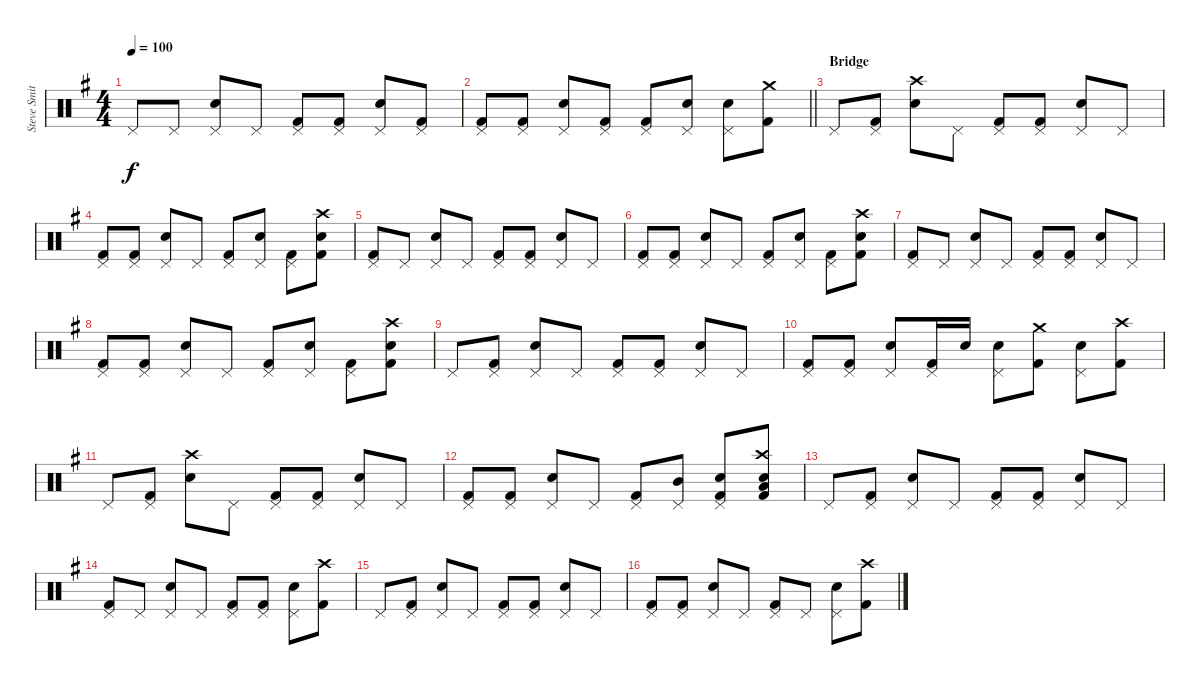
\track ("Steve Smith" "Steve Smit") {instrument percussion}
\staff {score}
\articulation defaults
\ts (4 4)
\tempo 100
\clef neutral
\ks g "Pedal Hi-Hat (hit)".8{dy f} "Pedal Hi-Hat (hit)".8
("Pedal Hi-Hat (hit)" "Snare (hit) 2").8 "Pedal Hi-Hat (hit)".8 ("Pedal Hi-Hat (hit)" "Kick (hit) 2").8 ("Pedal Hi-Hat (hit)" "Kick (hit) 2").8 ("Pedal Hi-Hat (hit)" "Snare (hit) 2").8 ("Pedal Hi-Hat (hit)" "Kick (hit) 2").8 |
\barLineRight lightlight
("Pedal Hi-Hat (hit)" "Kick (hit) 2").8 ("Pedal Hi-Hat (hit)" "Kick (hit) 2").8 ("Pedal Hi-Hat (hit)" "Snare (hit) 2").8 ("Pedal Hi-Hat (hit)" "Kick (hit) 2").8 ("Pedal Hi-Hat (hit)" "Kick (hit) 2").8 ("Pedal Hi-Hat (hit)" "Snare (hit) 2").8 ("Pedal Hi-Hat (hit)" "Snare (hit) 2").8 ("Crash medium (hit)" "Kick (hit) 2").8 |
\section ("" "Bridge")
"Pedal Hi-Hat (hit)".8 ("Pedal Hi-Hat (hit)" "Kick (hit) 2").8 ("Crash high (hit)" "Snare (hit) 2").8 "Pedal Hi-Hat (hit)".8 ("Pedal Hi-Hat (hit)" "Kick (hit) 2").8 ("Pedal Hi-Hat (hit)" "Kick (hit) 2").8 ("Pedal Hi-Hat (hit)" "Snare (hit) 2").8 "Pedal Hi-Hat (hit)".8 |
("Pedal Hi-Hat (hit)" "Kick (hit) 2").8 ("Pedal Hi-Hat (hit)" "Kick (hit) 2").8 ("Pedal Hi-Hat (hit)" "Snare (hit) 2").8 "Pedal Hi-Hat (hit)".8 ("Pedal Hi-Hat (hit)" "Kick (hit) 2").8 ("Pedal Hi-Hat (hit)" "Snare (hit) 2").8 ("Pedal Hi-Hat (hit)" "Kick (hit) 2").8 ("Crash high (hit)" "Snare (hit) 2" "Kick (hit) 2").8 |
("Pedal Hi-Hat (hit)" "Kick (hit) 2").8 "Pedal Hi-Hat (hit)".8 ("Pedal Hi-Hat (hit)" "Snare (hit) 2").8 "Pedal Hi-Hat (hit)".8 ("Pedal Hi-Hat (hit)" "Kick (hit) 2").8 ("Pedal Hi-Hat (hit)" "Kick (hit) 2").8 ("Pedal Hi-Hat (hit)" "Snare (hit) 2").8 "Pedal Hi-Hat (hit)".8 |
("Pedal Hi-Hat (hit)" "Kick (hit) 2").8 ("Pedal Hi-Hat (hit)" "Kick (hit) 2").8 ("Pedal Hi-Hat (hit)" "Snare (hit) 2").8 "Pedal Hi-Hat (hit)".8 ("Pedal Hi-Hat (hit)" "Kick (hit) 2").8 ("Pedal Hi-Hat (hit)" "Snare (hit) 2").8 ("Pedal Hi-Hat (hit)" "Kick (hit) 2").8 ("Crash high (hit)" "Snare (hit) 2" "Kick (hit) 2").8 |
("Pedal Hi-Hat (hit)" "Kick (hit) 2").8 "Pedal Hi-Hat (hit)".8 ("Pedal Hi-Hat (hit)" "Snare (hit) 2").8 "Pedal Hi-Hat (hit)".8 ("Pedal Hi-Hat (hit)" "Kick (hit) 2").8 ("Pedal Hi-Hat (hit)" "Kick (hit) 2").8 ("Pedal Hi-Hat (hit)" "Snare (hit) 2").8 "Pedal Hi-Hat (hit)".8 |
("Pedal Hi-Hat (hit)" "Kick (hit) 2").8 ("Pedal Hi-Hat (hit)" "Kick (hit) 2").8 ("Pedal Hi-Hat (hit)" "Snare (hit) 2").8 "Pedal Hi-Hat (hit)".8 ("Pedal Hi-Hat (hit)" "Kick (hit) 2").8 ("Pedal Hi-Hat (hit)" "Snare (hit) 2").8 ("Pedal Hi-Hat (hit)" "Kick (hit) 2").8 ("Crash high (hit)" "Snare (hit) 2" "Kick (hit) 2").8 |
"Pedal Hi-Hat (hit)".8 ("Pedal Hi-Hat (hit)" "Kick (hit) 2").8 ("Pedal Hi-Hat (hit)" "Snare (hit) 2").8 "Pedal Hi-Hat (hit)".8 ("Pedal Hi-Hat (hit)" "Kick (hit) 2").8 ("Pedal Hi-Hat (hit)" "Kick (hit) 2").8 ("Pedal Hi-Hat (hit)" "Snare (hit) 2").8 "Pedal Hi-Hat (hit)".8 |
("Pedal Hi-Hat (hit)" "Kick (hit) 2").8 ("Pedal Hi-Hat (hit)" "Kick (hit) 2").8 ("Pedal Hi-Hat (hit)" "Snare (hit) 2").8 ("Pedal Hi-Hat (hit)" "Kick (hit) 2").16 "Snare (hit) 2".16 ("Pedal Hi-Hat (hit)" "Snare (hit) 2").8 ("Crash medium (hit)" "Kick (hit) 2").8 ("Pedal Hi-Hat (hit)" "Snare (hit) 2").8 ("Crash high (hit)" "Kick (hit) 2").8 |
"Pedal Hi-Hat (hit)".8 ("Pedal Hi-Hat (hit)" "Kick (hit) 2").8 ("Crash high (hit)" "Snare (hit) 2").8 "Pedal Hi-Hat (hit)".8 ("Pedal Hi-Hat (hit)" "Kick (hit) 2").8 ("Pedal Hi-Hat (hit)" "Kick (hit) 2").8 ("Pedal Hi-Hat (hit)" "Snare (hit) 2").8 "Pedal Hi-Hat (hit)".8 |
("Pedal Hi-Hat (hit)" "Kick (hit) 2").8 ("Pedal Hi-Hat (hit)" "Kick (hit) 2").8 ("Pedal Hi-Hat (hit)" "Snare (hit) 2").8 "Pedal Hi-Hat (hit)".8 ("Pedal Hi-Hat (hit)" "Kick (hit) 2").8 ("Pedal Hi-Hat (hit)" "Mid Tom (hit)").8 ("Pedal Hi-Hat (hit)" "Snare (hit) 2" "Kick (hit) 2").8 ("Crash high (hit)" "Snare (hit) 2" "Low Tom (hit)" "Kick (hit) 2").8 |
"Pedal Hi-Hat (hit)".8 ("Pedal Hi-Hat (hit)" "Kick (hit) 2").8 ("Pedal Hi-Hat (hit)" "Snare (hit) 2").8 "Pedal Hi-Hat (hit)".8 ("Pedal Hi-Hat (hit)" "Kick (hit) 2").8 ("Pedal Hi-Hat (hit)" "Kick (hit) 2").8 ("Pedal Hi-Hat (hit)" "Snare (hit) 2").8 "Pedal Hi-Hat (hit)".8 |
("Pedal Hi-Hat (hit)" "Kick (hit) 2").8 "Pedal Hi-Hat (hit)".8 ("Pedal Hi-Hat (hit)" "Snare (hit) 2").8 "Pedal Hi-Hat (hit)".8 ("Pedal Hi-Hat (hit)" "Kick (hit) 2").8 ("Pedal Hi-Hat (hit)" "Kick (hit) 2").8 ("Pedal Hi-Hat (hit)" "Snare (hit) 2").8 ("Crash high (hit)" "Kick (hit) 2").8 |
"Pedal Hi-Hat (hit)".8 ("Pedal Hi-Hat (hit)" "Kick (hit) 2").8 ("Pedal Hi-Hat (hit)" "Snare (hit) 2").8 "Pedal Hi-Hat (hit)".8 ("Pedal Hi-Hat (hit)" "Kick (hit) 2").8 ("Pedal Hi-Hat (hit)" "Kick (hit) 2").8 ("Pedal Hi-Hat (hit)" "Snare (hit) 2").8 "Pedal Hi-Hat (hit)".8 |
("Pedal Hi-Hat (hit)" "Kick (hit) 2").8 ("Pedal Hi-Hat (hit)" "Kick (hit) 2").8 ("Pedal Hi-Hat (hit)" "Snare (hit) 2").8 "Pedal Hi-Hat (hit)".8 ("Pedal Hi-Hat (hit)" "Kick (hit) 2").8 "Pedal Hi-Hat (hit)".8 ("Pedal Hi-Hat (hit)" "Snare (hit) 2").8 ("Crash high (hit)" "Kick (hit) 2").8
